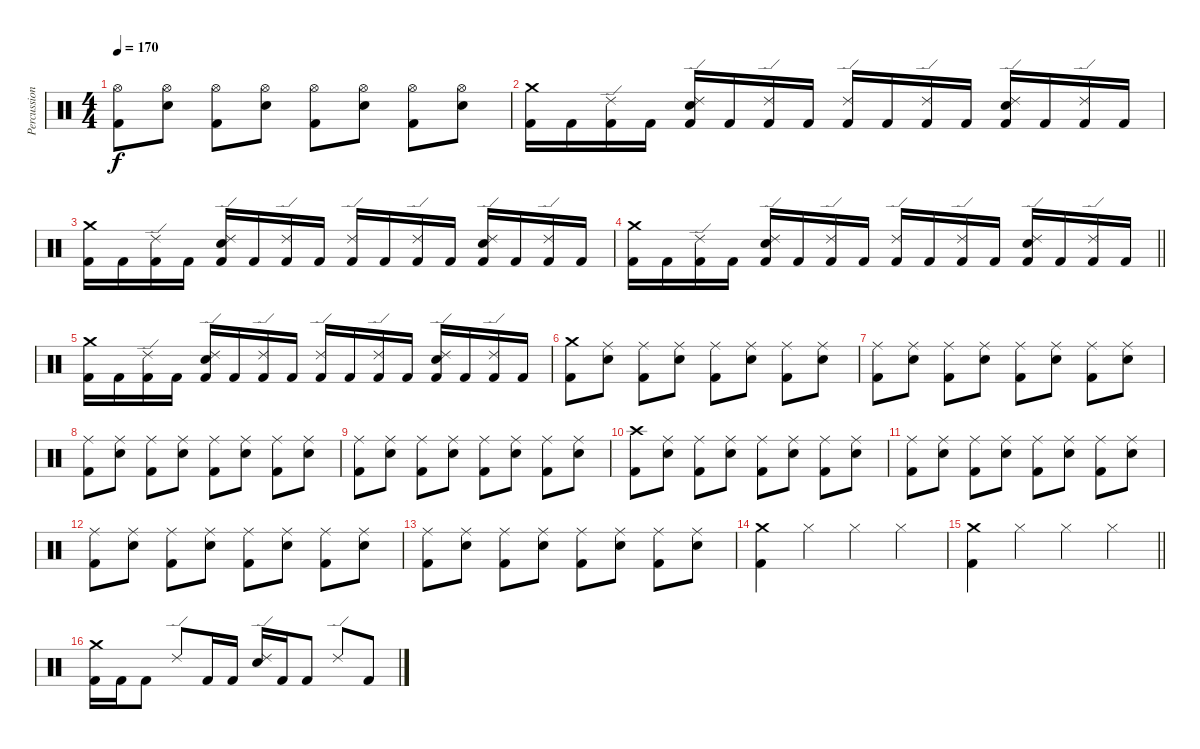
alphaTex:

\track ("Percussion" "Percussion") {instrument percussion}
\staff {score}
\articulation defaults
\ts (4 4)
\tempo 170
\clef neutral
\ks c
("Kick (hit) 2" "Hi-Hat (open)").8{dy f} ("Hi-Hat (open)" "Electric Snare (hit)").8 ("Kick (hit) 2" "Hi-Hat (open)").8 ("Hi-Hat (open)" "Electric Snare (hit)").8 ("Kick (hit) 2" "Hi-Hat (open)").8 ("Hi-Hat (open)" "Electric Snare (hit)").8 ("Kick (hit) 2" "Hi-Hat (open)").8 ("Hi-Hat (open)" "Electric Snare (hit)").8 |
("Crash medium (hit)" "Kick (hit) 2").16 "Kick (hit) 2".16 ("Ride (edge) 2" "Kick (hit) 2").16 "Kick (hit) 2".16 ("Ride (edge) 2" "Kick (hit) 2" "Electric Snare (hit)").16 "Kick (hit) 2".16 ("Ride (edge) 2" "Kick (hit) 2").16 "Kick (hit) 2".16 ("Ride (edge) 2" "Kick (hit) 2").16 "Kick (hit) 2".16 ("Ride (edge) 2" "Kick (hit) 2").16 "Kick (hit) 2".16 ("Ride (edge) 2" "Kick (hit) 2" "Electric Snare (hit)").16 "Kick (hit) 2".16 ("Ride (edge) 2" "Kick (hit) 2").16 "Kick (hit) 2".16 |
("Crash medium (hit)" "Kick (hit) 2").16 "Kick (hit) 2".16 ("Ride (edge) 2" "Kick (hit) 2").16 "Kick (hit) 2".16 ("Ride (edge) 2" "Kick (hit) 2" "Electric Snare (hit)").16 "Kick (hit) 2".16 ("Ride (edge) 2" "Kick (hit) 2").16 "Kick (hit) 2".16 ("Ride (edge) 2" "Kick (hit) 2").16 "Kick (hit) 2".16 ("Ride (edge) 2" "Kick (hit) 2").16 "Kick (hit) 2".16 ("Ride (edge) 2" "Kick (hit) 2" "Electric Snare (hit)").16 "Kick (hit) 2".16 ("Ride (edge) 2" "Kick (hit) 2").16 "Kick (hit) 2".16 |
\barLineRight lightlight
("Crash medium (hit)" "Kick (hit) 2").16 "Kick (hit) 2".16 ("Ride (edge) 2" "Kick (hit) 2").16 "Kick (hit) 2".16 ("Ride (edge) 2" "Kick (hit) 2" "Electric Snare (hit)").16 "Kick (hit) 2".16 ("Ride (edge) 2" "Kick (hit) 2").16 "Kick (hit) 2".16 ("Ride (edge) 2" "Kick (hit) 2").16 "Kick (hit) 2".16 ("Ride (edge) 2" "Kick (hit) 2").16 "Kick (hit) 2".16 ("Ride (edge) 2" "Kick (hit) 2" "Electric Snare (hit)").16 "Kick (hit) 2".16 ("Ride (edge) 2" "Kick (hit) 2").16 "Kick (hit) 2".16 |
\section ("" "")
("Crash medium (hit)" "Kick (hit) 2").16 "Kick (hit) 2".16 ("Ride (edge) 2" "Kick (hit) 2").16 "Kick (hit) 2".16 ("Ride (edge) 2" "Kick (hit) 2" "Electric Snare (hit)").16 "Kick (hit) 2".16 ("Ride (edge) 2" "Kick (hit) 2").16 "Kick (hit) 2".16 ("Ride (edge) 2" "Kick (hit) 2").16 "Kick (hit) 2".16 ("Ride (edge) 2" "Kick (hit) 2").16 "Kick (hit) 2".16 ("Ride (edge) 2" "Kick (hit) 2" "Electric Snare (hit)").16 "Kick (hit) 2".16 ("Ride (edge) 2" "Kick (hit) 2").16 "Kick (hit) 2".16 |
("Kick (hit) 2" "Crash medium (hit)").8 ("Ride (middle)" "Electric Snare (hit)").8 ("Kick (hit) 2" "Ride (middle)").8 ("Ride (middle)" "Electric Snare (hit)").8 ("Kick (hit) 2" "Ride (middle)").8 ("Ride (middle)" "Electric Snare (hit)").8 ("Kick (hit) 2" "Ride (middle)").8 ("Ride (middle)" "Electric Snare (hit)").8 |
("Kick (hit) 2" "Ride (middle)").8 ("Ride (middle)" "Electric Snare (hit)").8 ("Kick (hit) 2" "Ride (middle)").8 ("Ride (middle)" "Electric Snare (hit)").8 ("Kick (hit) 2" "Ride (middle)").8 ("Ride (middle)" "Electric Snare (hit)").8 ("Kick (hit) 2" "Ride (middle)").8 ("Ride (middle)" "Electric Snare (hit)").8 |
("Kick (hit) 2" "Ride (middle)").8 ("Ride (middle)" "Electric Snare (hit)").8 ("Kick (hit) 2" "Ride (middle)").8 ("Ride (middle)" "Electric Snare (hit)").8 ("Kick (hit) 2" "Ride (middle)").8 ("Ride (middle)" "Electric Snare (hit)").8 ("Kick (hit) 2" "Ride (middle)").8 ("Ride (middle)" "Electric Snare (hit)").8 |
("Kick (hit) 2" "Ride (middle)").8 ("Ride (middle)" "Electric Snare (hit)").8 ("Kick (hit) 2" "Ride (middle)").8 ("Ride (middle)" "Electric Snare (hit)").8 ("Kick (hit) 2" "Ride (middle)").8 ("Ride (middle)" "Electric Snare (hit)").8 ("Kick (hit) 2" "Ride (middle)").8 ("Ride (middle)" "Electric Snare (hit)").8 |
("Kick (hit) 2" "Crash high (hit)").8 ("Ride (middle)" "Electric Snare (hit)").8 ("Kick (hit) 2" "Ride (middle)").8 ("Ride (middle)" "Electric Snare (hit)").8 ("Kick (hit) 2" "Ride (middle)").8 ("Ride (middle)" "Electric Snare (hit)").8 ("Kick (hit) 2" "Ride (middle)").8 ("Ride (middle)" "Electric Snare (hit)").8 |
("Kick (hit) 2" "Ride (middle)").8 ("Ride (middle)" "Electric Snare (hit)").8 ("Kick (hit) 2" "Ride (middle)").8 ("Ride (middle)" "Electric Snare (hit)").8 ("Kick (hit) 2" "Ride (middle)").8 ("Ride (middle)" "Electric Snare (hit)").8 ("Kick (hit) 2" "Ride (middle)").8 ("Ride (middle)" "Electric Snare (hit)").8 |
("Kick (hit) 2" "Ride (middle)").8 ("Ride (middle)" "Electric Snare (hit)").8 ("Kick (hit) 2" "Ride (middle)").8 ("Ride (middle)" "Electric Snare (hit)").8 ("Kick (hit) 2" "Ride (middle)").8 ("Ride (middle)" "Electric Snare (hit)").8 ("Kick (hit) 2" "Ride (middle)").8 ("Ride (middle)" "Electric Snare (hit)").8 |
("Kick (hit) 2" "Ride (middle)").8 ("Ride (middle)" "Electric Snare (hit)").8 ("Kick (hit) 2" "Ride (middle)").8 ("Ride (middle)" "Electric Snare (hit)").8 ("Kick (hit) 2" "Ride (middle)").8 ("Ride (middle)" "Electric Snare (hit)").8 ("Kick (hit) 2" "Ride (middle)").8 ("Ride (middle)" "Electric Snare (hit)").8 |
("Crash medium (hit)" "Kick (hit) 2").4 "Hi-Hat (closed)".4 "Hi-Hat (closed)".4 "Hi-Hat (closed)".4 |
\barLineRight lightlight
("Crash medium (hit)" "Kick (hit) 2").4 "Hi-Hat (closed)".4 "Hi-Hat (closed)".4 "Hi-Hat (closed)".4 |
\section ("" "")
("Crash medium (hit)" "Kick (hit) 2").16 "Kick (hit) 2".16 "Kick (hit) 2".8 "Ride (edge) 2".8 "Kick (hit) 2".16 "Kick (hit) 2".16 ("Ride (edge) 2" "Electric Snare (hit)").16 "Kick (hit) 2".16 "Kick (hit) 2".8 "Ride (edge) 2".8 "Kick (hit) 2".8
